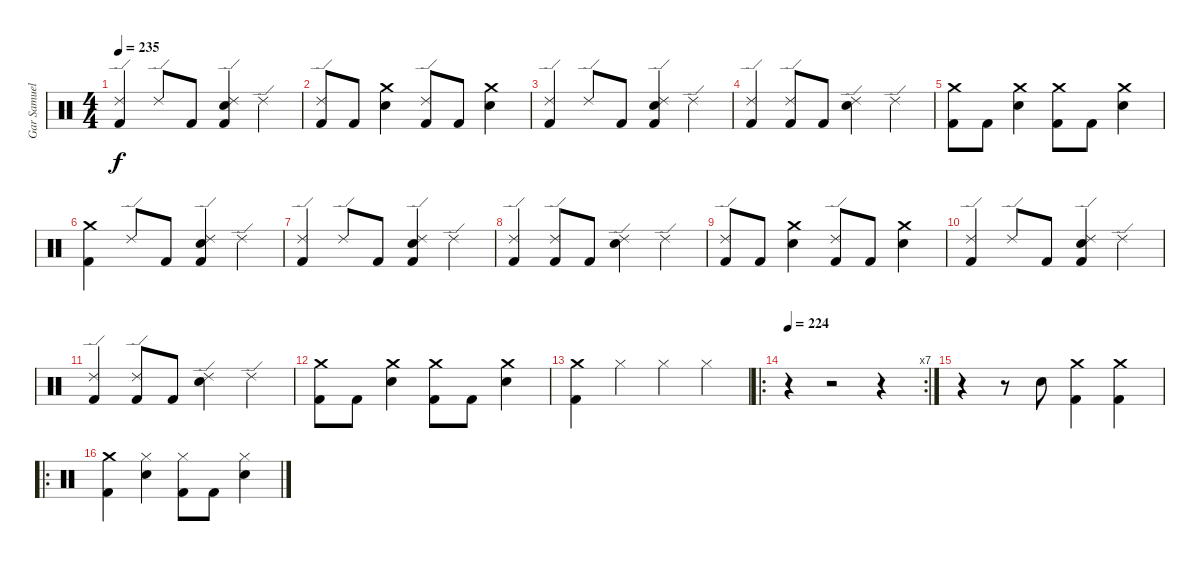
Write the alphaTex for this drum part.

\track ("Gar Samuelson (Drums)" "Gar Samuel") {instrument percussion}
\staff {score}
\articulation defaults
\ts (4 4)
\tempo 235
\clef neutral
\ks c
("Kick (hit) 2" "Ride (edge) 2").4{dy f} "Ride (edge) 2".8 "Kick (hit) 2".8 ("Kick (hit) 2" "Snare (hit) 2" "Ride (edge) 2").4 "Ride (edge) 2".4 |
("Ride (edge) 2" "Kick (hit) 2").8 "Kick (hit) 2".8 ("Snare (hit) 2" "Crash medium (hit)").4 ("Ride (edge) 2" "Kick (hit) 2").8 "Kick (hit) 2".8 ("Snare (hit) 2" "Crash medium (hit)").4 |
("Ride (edge) 2" "Kick (hit) 2").4 "Ride (edge) 2".8 "Kick (hit) 2".8 ("Ride (edge) 2" "Snare (hit) 2" "Kick (hit) 2").4 "Ride (edge) 2".4 |
("Kick (hit) 2" "Ride (edge) 2").4 ("Ride (edge) 2" "Kick (hit) 2").8 "Kick (hit) 2".8 ("Snare (hit) 2" "Ride (edge) 2").4 "Ride (edge) 2".4 |
("Kick (hit) 2" "Crash medium (hit)").8 "Kick (hit) 2".8 ("Snare (hit) 2" "Crash medium (hit)").4 ("Kick (hit) 2" "Crash medium (hit)").8 "Kick (hit) 2".8 ("Snare (hit) 2" "Crash medium (hit)").4 |
("Kick (hit) 2" "Crash medium (hit)").4 "Ride (edge) 2".8 "Kick (hit) 2".8 ("Kick (hit) 2" "Snare (hit) 2" "Ride (edge) 2").4 "Ride (edge) 2".4 |
("Kick (hit) 2" "Ride (edge) 2").4 "Ride (edge) 2".8 "Kick (hit) 2".8 ("Kick (hit) 2" "Snare (hit) 2" "Ride (edge) 2").4 "Ride (edge) 2".4 |
("Kick (hit) 2" "Ride (edge) 2").4 ("Kick (hit) 2" "Ride (edge) 2").8 "Kick (hit) 2".8 ("Ride (edge) 2" "Snare (hit) 2").4 "Ride (edge) 2".4 |
("Ride (edge) 2" "Kick (hit) 2").8 "Kick (hit) 2".8 ("Snare (hit) 2" "Crash medium (hit)").4 ("Ride (edge) 2" "Kick (hit) 2").8 "Kick (hit) 2".8 ("Snare (hit) 2" "Crash medium (hit)").4 |
("Ride (edge) 2" "Kick (hit) 2").4 "Ride (edge) 2".8 "Kick (hit) 2".8 ("Ride (edge) 2" "Snare (hit) 2" "Kick (hit) 2").4 "Ride (edge) 2".4 |
("Kick (hit) 2" "Ride (edge) 2").4 ("Ride (edge) 2" "Kick (hit) 2").8 "Kick (hit) 2".8 ("Snare (hit) 2" "Ride (edge) 2").4 "Ride (edge) 2".4 |
("Kick (hit) 2" "Crash medium (hit)").8 "Kick (hit) 2".8 ("Snare (hit) 2" "Crash medium (hit)").4 ("Kick (hit) 2" "Crash medium (hit)").8 "Kick (hit) 2".8 ("Snare (hit) 2" "Crash medium (hit)").4 |
("Kick (hit) 2" "Crash medium (hit)").4 "Hi-Hat (closed)".4 "Hi-Hat (closed)".4 "Hi-Hat (closed)".4 |
\ro
\rc 7
\tempo 224
r.4 r.2 r.4 |
r.4 r.8 "Snare (hit) 2".8 ("Kick (hit) 2" "Crash medium (hit)").4 ("Kick (hit) 2" "Crash medium (hit)").4 |
\ro
("Kick (hit) 2" "Crash medium (hit)").4 ("Hi-Hat (closed)" "Snare (hit) 2").4 ("Kick (hit) 2" "Hi-Hat (closed)").8 "Kick (hit) 2".8 ("Snare (hit) 2" "Hi-Hat (closed)").4
